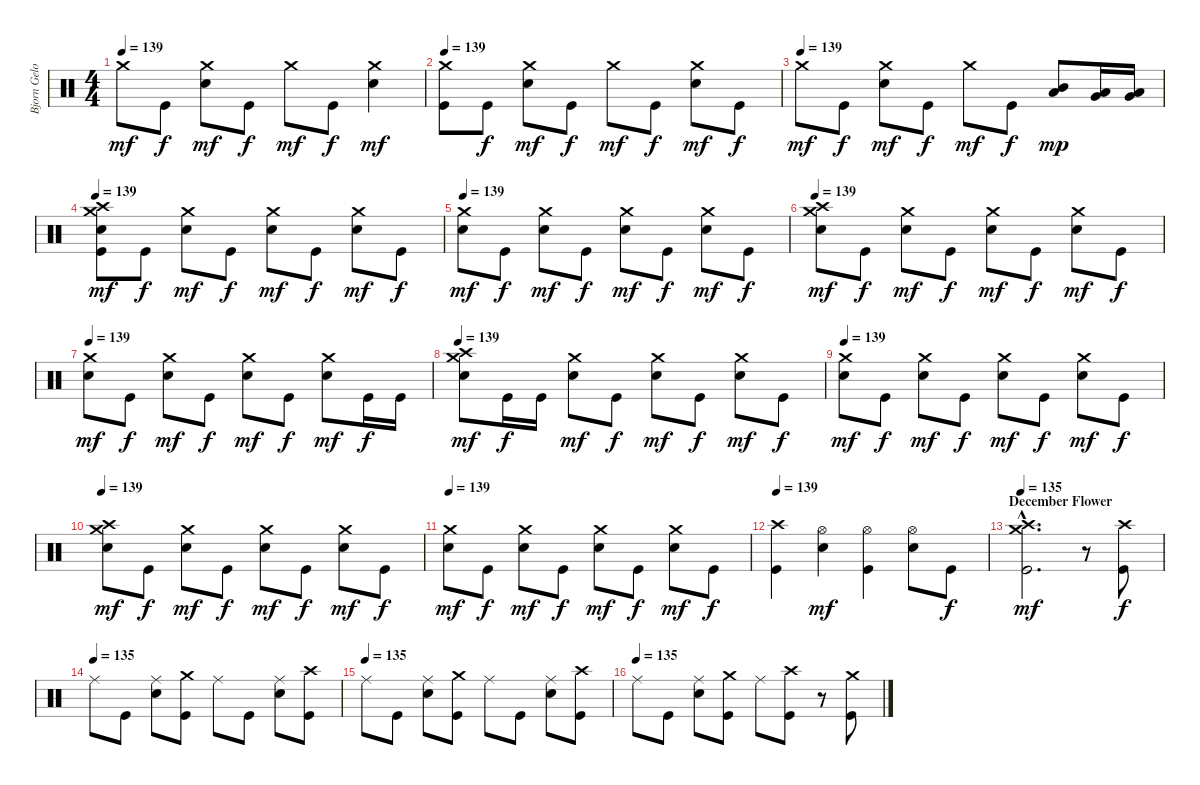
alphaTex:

\track ("Bjorn Gelotte-Drum" "Bjorn Gelo") {instrument percussion}
\staff {score}
\articulation defaults
\ts (4 4)
\tempo 139
\clef neutral
\ks c "Crash medium (hit)".8{dy mf} "Kick (hit)".8{dy f}
("Electric Snare (hit)" "Crash medium (hit)").8{dy mf} "Kick (hit)".8{dy f} "Crash medium (hit)".8{dy mf} "Kick (hit)".8{dy f} ("Electric Snare (hit)" "Crash medium (hit)").4{dy mf} |
\tempo 139
("Kick (hit)" "Crash medium (hit)").8 "Kick (hit)".8{dy f} ("Electric Snare (hit)" "Crash medium (hit)").8{dy mf} "Kick (hit)".8{dy f} "Crash medium (hit)".8{dy mf} "Kick (hit)".8{dy f} ("Electric Snare (hit)" "Crash medium (hit)").8{dy mf} "Kick (hit)".8{dy f} |
\tempo (139)
"Crash medium (hit)".8{dy mf} "Kick (hit)".8{dy f} ("Electric Snare (hit)" "Crash medium (hit)").8{dy mf} "Kick (hit)".8{dy f} "Crash medium (hit)".8{dy mf} "Kick (hit)".8{dy f} ("Low Tom (hit)" "Mid Tom (hit)").8{dy mp} ("Very Low Tom (hit)" "Low Tom (hit)").16 ("Low Floor Tom (hit)" "Very Low Tom (hit)").16 |
\tempo 139
("Kick (hit)" "Electric Snare (hit)" "Crash medium (hit)" "Crash high (hit)").8{dy mf} "Kick (hit)".8{dy f} ("Electric Snare (hit)" "Crash medium (hit)").8{dy mf} "Kick (hit)".8{dy f} ("Electric Snare (hit)" "Crash medium (hit)").8{dy mf} "Kick (hit)".8{dy f} ("Electric Snare (hit)" "Crash medium (hit)").8{dy mf} "Kick (hit)".8{dy f} |
\tempo 139
("Electric Snare (hit)" "Crash medium (hit)").8{dy mf} "Kick (hit)".8{dy f} ("Electric Snare (hit)" "Crash medium (hit)").8{dy mf} "Kick (hit)".8{dy f} ("Electric Snare (hit)" "Crash medium (hit)").8{dy mf} "Kick (hit)".8{dy f} ("Electric Snare (hit)" "Crash medium (hit)").8{dy mf} "Kick (hit)".8{dy f} |
\tempo 139
("Electric Snare (hit)" "Crash medium (hit)" "Crash high (hit)").8{dy mf} "Kick (hit)".8{dy f} ("Electric Snare (hit)" "Crash medium (hit)").8{dy mf} "Kick (hit)".8{dy f} ("Electric Snare (hit)" "Crash medium (hit)").8{dy mf} "Kick (hit)".8{dy f} ("Electric Snare (hit)" "Crash medium (hit)").8{dy mf} "Kick (hit)".8{dy f} |
\tempo 139
("Electric Snare (hit)" "Crash medium (hit)").8{dy mf} "Kick (hit)".8{dy f} ("Electric Snare (hit)" "Crash medium (hit)").8{dy mf} "Kick (hit)".8{dy f} ("Electric Snare (hit)" "Crash medium (hit)").8{dy mf} "Kick (hit)".8{dy f} ("Electric Snare (hit)" "Crash medium (hit)").8{dy mf} "Kick (hit)".16{dy f} "Kick (hit)".16 |
\tempo 139
("Electric Snare (hit)" "Crash medium (hit)" "Crash high (hit)").8{dy mf} "Kick (hit)".16{dy f} "Kick (hit)".16 ("Electric Snare (hit)" "Crash medium (hit)").8{dy mf} "Kick (hit)".8{dy f} ("Electric Snare (hit)" "Crash medium (hit)").8{dy mf} "Kick (hit)".8{dy f} ("Electric Snare (hit)" "Crash medium (hit)").8{dy mf} "Kick (hit)".8{dy f} |
\tempo 139
("Electric Snare (hit)" "Crash medium (hit)").8{dy mf} "Kick (hit)".8{dy f} ("Electric Snare (hit)" "Crash medium (hit)").8{dy mf} "Kick (hit)".8{dy f} ("Electric Snare (hit)" "Crash medium (hit)").8{dy mf} "Kick (hit)".8{dy f} ("Electric Snare (hit)" "Crash medium (hit)").8{dy mf} "Kick (hit)".8{dy f} |
\tempo 139
("Electric Snare (hit)" "Crash medium (hit)" "Crash high (hit)").8{dy mf} "Kick (hit)".8{dy f} ("Electric Snare (hit)" "Crash medium (hit)").8{dy mf} "Kick (hit)".8{dy f} ("Electric Snare (hit)" "Crash medium (hit)").8{dy mf} "Kick (hit)".8{dy f} ("Electric Snare (hit)" "Crash medium (hit)").8{dy mf} "Kick (hit)".8{dy f} |
\tempo 139
("Electric Snare (hit)" "Crash medium (hit)").8{dy mf} "Kick (hit)".8{dy f} ("Electric Snare (hit)" "Crash medium (hit)").8{dy mf} "Kick (hit)".8{dy f} ("Electric Snare (hit)" "Crash medium (hit)").8{dy mf} "Kick (hit)".8{dy f} ("Electric Snare (hit)" "Crash medium (hit)").8{dy mf} "Kick (hit)".8{dy f} |
\tempo 139
("Kick (hit)" "Crash high (hit)").4 ("Electric Snare (hit)" "Hi-Hat (open)").4{dy mf} ("Kick (hit)" "Hi-Hat (open)").4 ("Electric Snare (hit)" "Hi-Hat (open)").8 "Kick (hit)".8{dy f} |
\section ("" "December Flower")
\tempo 135
("Kick (hit)"{hac} "Crash medium (hit)"{hac} "Crash high (hit)"{hac}).2{d dy mf} r.8 ("Kick (hit)" "Crash high (hit)").8{dy f} |
\tempo (135)
"Ride (middle)".8 "Kick (hit)".8 ("Electric Snare (hit)" "Ride (middle)").8 ("Kick (hit)" "Crash medium (hit)").8 "Ride (middle)".8 "Kick (hit)".8 ("Electric Snare (hit)" "Ride (middle)").8 ("Kick (hit)" "Crash high (hit)").8 |
\tempo (135)
"Ride (middle)".8 "Kick (hit)".8 ("Electric Snare (hit)" "Ride (middle)").8 ("Kick (hit)" "Crash medium (hit)").8 "Ride (middle)".8 "Kick (hit)".8 ("Electric Snare (hit)" "Ride (middle)").8 ("Kick (hit)" "Crash high (hit)").8 |
\tempo (135)
"Ride (middle)".8 "Kick (hit)".8 ("Electric Snare (hit)" "Ride (middle)").8 ("Kick (hit)" "Crash medium (hit)").8 "Ride (middle)".8 ("Kick (hit)" "Crash high (hit)").8 r.8 ("Kick (hit)" "Crash medium (hit)").8
